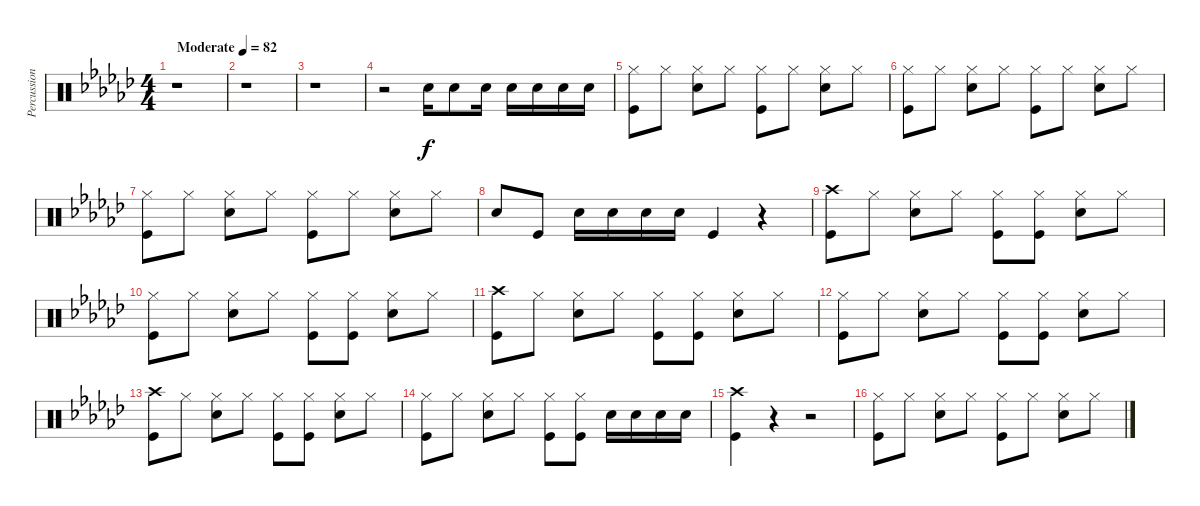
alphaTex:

\track ("Percussions" "Percussion") {instrument percussion}
\staff {score}
\articulation defaults
\ts (4 4)
\tempo (82 "Moderate")
\clef neutral
\ks ebminor
r.1{dy f} |
r.1 |
r.1 |
r.2 "Snare (hit) 2".16 "Snare (hit) 2".8 "Snare (hit) 2".16 "Snare (hit) 2".16 "Snare (hit) 2".16 "Snare (hit) 2".16 "Snare (hit) 2".16 |
("Kick (hit)" "Hi-Hat (closed)").8 "Hi-Hat (closed)".8 ("Hi-Hat (closed)" "Snare (hit) 2").8 "Hi-Hat (closed)".8 ("Hi-Hat (closed)" "Kick (hit)").8 "Hi-Hat (closed)".8 ("Hi-Hat (closed)" "Snare (hit) 2").8 "Hi-Hat (closed)".8 |
("Kick (hit)" "Hi-Hat (closed)").8 "Hi-Hat (closed)".8 ("Hi-Hat (closed)" "Snare (hit) 2").8 "Hi-Hat (closed)".8 ("Hi-Hat (closed)" "Kick (hit)").8 "Hi-Hat (closed)".8 ("Hi-Hat (closed)" "Snare (hit) 2").8 "Hi-Hat (closed)".8 |
("Kick (hit)" "Hi-Hat (closed)").8 "Hi-Hat (closed)".8 ("Hi-Hat (closed)" "Snare (hit) 2").8 "Hi-Hat (closed)".8 ("Hi-Hat (closed)" "Kick (hit)").8 "Hi-Hat (closed)".8 ("Hi-Hat (closed)" "Snare (hit) 2").8 "Hi-Hat (closed)".8 |
"Snare (hit) 2".8 "Kick (hit)".8 "Snare (hit) 2".16 "Snare (hit) 2".16 "Snare (hit) 2".16 "Snare (hit) 2".16 "Kick (hit)".4 r.4 |
("Crash high (hit)" "Kick (hit)").8 "Hi-Hat (closed)".8 ("Hi-Hat (closed)" "Snare (hit) 2").8 "Hi-Hat (closed)".8 ("Hi-Hat (closed)" "Kick (hit)").8 ("Hi-Hat (closed)" "Kick (hit)").8 ("Hi-Hat (closed)" "Snare (hit) 2").8 "Hi-Hat (closed)".8 |
("Kick (hit)" "Hi-Hat (closed)").8 "Hi-Hat (closed)".8 ("Hi-Hat (closed)" "Snare (hit) 2").8 "Hi-Hat (closed)".8 ("Hi-Hat (closed)" "Kick (hit)").8 ("Hi-Hat (closed)" "Kick (hit)").8 ("Hi-Hat (closed)" "Snare (hit) 2").8 "Hi-Hat (closed)".8 |
("Crash high (hit)" "Kick (hit)").8 "Hi-Hat (closed)".8 ("Hi-Hat (closed)" "Snare (hit) 2").8 "Hi-Hat (closed)".8 ("Hi-Hat (closed)" "Kick (hit)").8 ("Hi-Hat (closed)" "Kick (hit)").8 ("Hi-Hat (closed)" "Snare (hit) 2").8 "Hi-Hat (closed)".8 |
("Kick (hit)" "Hi-Hat (closed)").8 "Hi-Hat (closed)".8 ("Hi-Hat (closed)" "Snare (hit) 2").8 "Hi-Hat (closed)".8 ("Hi-Hat (closed)" "Kick (hit)").8 ("Hi-Hat (closed)" "Kick (hit)").8 ("Hi-Hat (closed)" "Snare (hit) 2").8 "Hi-Hat (closed)".8 |
("Crash high (hit)" "Kick (hit)").8 "Hi-Hat (closed)".8 ("Hi-Hat (closed)" "Snare (hit) 2").8 "Hi-Hat (closed)".8 ("Hi-Hat (closed)" "Kick (hit)").8 ("Hi-Hat (closed)" "Kick (hit)").8 ("Hi-Hat (closed)" "Snare (hit) 2").8 "Hi-Hat (closed)".8 |
("Kick (hit)" "Hi-Hat (closed)").8 "Hi-Hat (closed)".8 ("Hi-Hat (closed)" "Snare (hit) 2").8 "Hi-Hat (closed)".8 ("Hi-Hat (closed)" "Kick (hit)").8 ("Hi-Hat (closed)" "Kick (hit)").8 "Snare (hit) 2".16 "Snare (hit) 2".16 "Snare (hit) 2".16 "Snare (hit) 2".16 |
("Kick (hit)" "Crash high (hit)").4 r.4 r.2 |
("Kick (hit)" "Hi-Hat (closed)").8 "Hi-Hat (closed)".8 ("Hi-Hat (closed)" "Snare (hit) 2").8 "Hi-Hat (closed)".8 ("Hi-Hat (closed)" "Kick (hit)").8 "Hi-Hat (closed)".8 ("Hi-Hat (closed)" "Snare (hit) 2").8 "Hi-Hat (closed)".8
